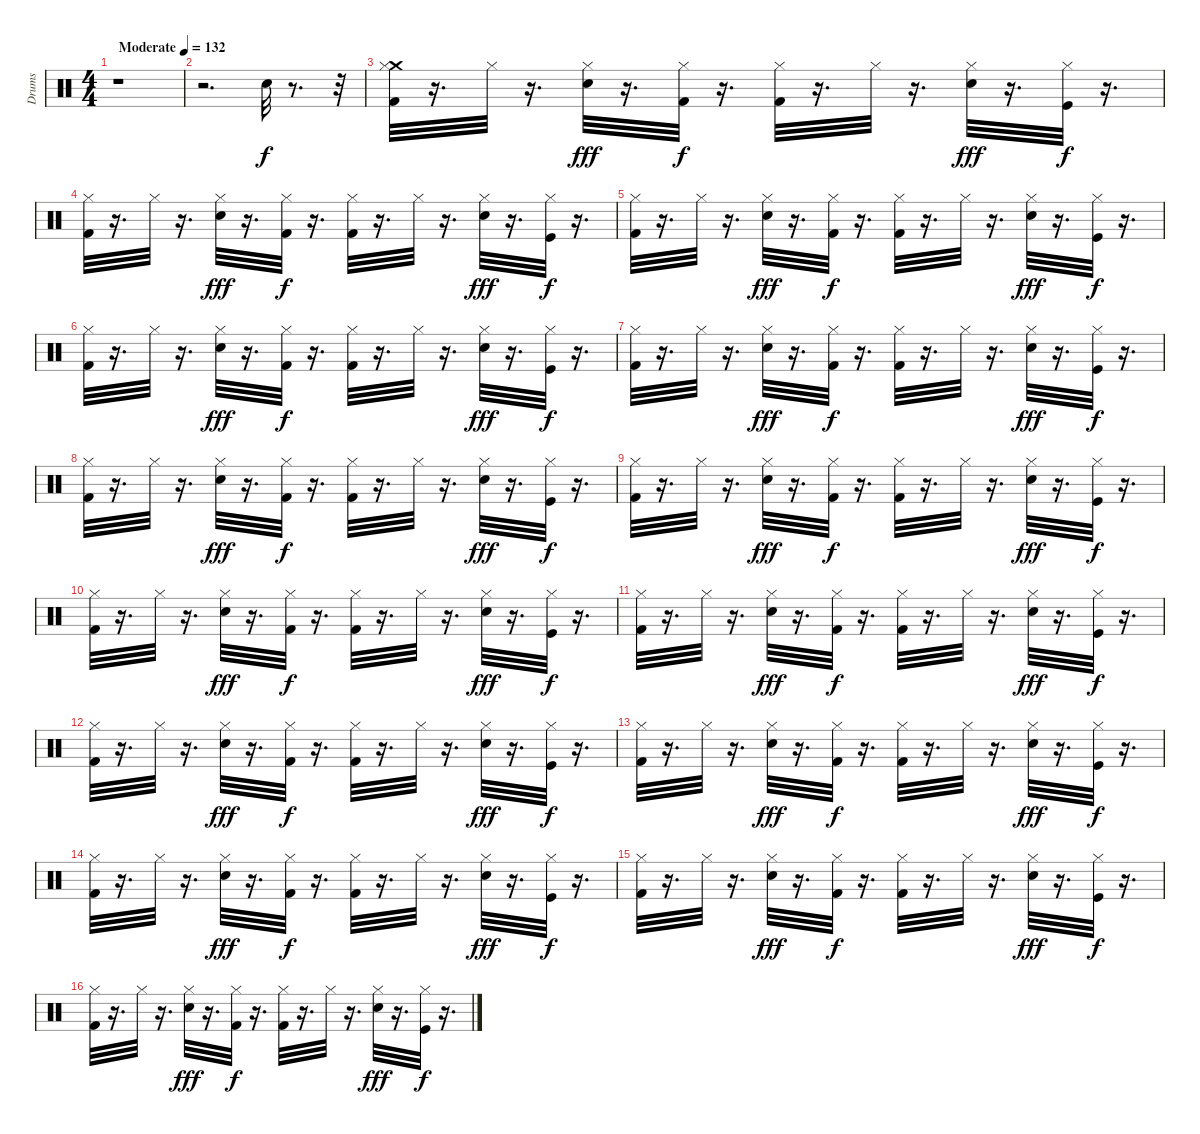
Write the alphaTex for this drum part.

\track ("Drums" "Drums") {instrument percussion}
\staff {score}
\articulation defaults
\ts (4 4)
\tempo (132 "Moderate")
\clef neutral
\ks c
r.1{dy f} |
r.2{d} "Snare (hit) 2".32 r.8{d} r.32 |
("Crash medium (hit)" "Hi-Hat (closed)" "Kick (hit) 2").32 r.16{d} "Hi-Hat (closed)".32 r.16{d} ("Hi-Hat (closed)" "Hand Clap (hit)").32{dy fff} r.16{d} ("Hi-Hat (closed)" "Kick (hit) 2").32{dy f} r.16{d} ("Hi-Hat (closed)" "Kick (hit) 2").32 r.16{d} "Hi-Hat (closed)".32 r.16{d} ("Hi-Hat (closed)" "Hand Clap (hit)").32{dy fff} r.16{d} ("Hi-Hat (closed)" "Kick (hit)").32{dy f} r.16{d} |
("Hi-Hat (closed)" "Kick (hit) 2").32 r.16{d} "Hi-Hat (closed)".32 r.16{d} ("Hi-Hat (closed)" "Hand Clap (hit)").32{dy fff} r.16{d} ("Hi-Hat (closed)" "Kick (hit) 2").32{dy f} r.16{d} ("Hi-Hat (closed)" "Kick (hit) 2").32 r.16{d} "Hi-Hat (closed)".32 r.16{d} ("Hi-Hat (closed)" "Hand Clap (hit)").32{dy fff} r.16{d} ("Hi-Hat (closed)" "Kick (hit)").32{dy f} r.16{d} |
("Hi-Hat (closed)" "Kick (hit) 2").32 r.16{d} "Hi-Hat (closed)".32 r.16{d} ("Hi-Hat (closed)" "Hand Clap (hit)").32{dy fff} r.16{d} ("Hi-Hat (closed)" "Kick (hit) 2").32{dy f} r.16{d} ("Hi-Hat (closed)" "Kick (hit) 2").32 r.16{d} "Hi-Hat (closed)".32 r.16{d} ("Hi-Hat (closed)" "Hand Clap (hit)").32{dy fff} r.16{d} ("Hi-Hat (closed)" "Kick (hit)").32{dy f} r.16{d} |
("Hi-Hat (closed)" "Kick (hit) 2").32 r.16{d} "Hi-Hat (closed)".32 r.16{d} ("Hi-Hat (closed)" "Hand Clap (hit)").32{dy fff} r.16{d} ("Hi-Hat (closed)" "Kick (hit) 2").32{dy f} r.16{d} ("Hi-Hat (closed)" "Kick (hit) 2").32 r.16{d} "Hi-Hat (closed)".32 r.16{d} ("Hi-Hat (closed)" "Hand Clap (hit)").32{dy fff} r.16{d} ("Hi-Hat (closed)" "Kick (hit)").32{dy f} r.16{d} |
("Hi-Hat (closed)" "Kick (hit) 2").32 r.16{d} "Hi-Hat (closed)".32 r.16{d} ("Hi-Hat (closed)" "Hand Clap (hit)").32{dy fff} r.16{d} ("Hi-Hat (closed)" "Kick (hit) 2").32{dy f} r.16{d} ("Hi-Hat (closed)" "Kick (hit) 2").32 r.16{d} "Hi-Hat (closed)".32 r.16{d} ("Hi-Hat (closed)" "Hand Clap (hit)").32{dy fff} r.16{d} ("Hi-Hat (closed)" "Kick (hit)").32{dy f} r.16{d} |
("Hi-Hat (closed)" "Kick (hit) 2").32 r.16{d} "Hi-Hat (closed)".32 r.16{d} ("Hi-Hat (closed)" "Hand Clap (hit)").32{dy fff} r.16{d} ("Hi-Hat (closed)" "Kick (hit) 2").32{dy f} r.16{d} ("Hi-Hat (closed)" "Kick (hit) 2").32 r.16{d} "Hi-Hat (closed)".32 r.16{d} ("Hi-Hat (closed)" "Hand Clap (hit)").32{dy fff} r.16{d} ("Hi-Hat (closed)" "Kick (hit)").32{dy f} r.16{d} |
("Hi-Hat (closed)" "Kick (hit) 2").32 r.16{d} "Hi-Hat (closed)".32 r.16{d} ("Hi-Hat (closed)" "Hand Clap (hit)").32{dy fff} r.16{d} ("Hi-Hat (closed)" "Kick (hit) 2").32{dy f} r.16{d} ("Hi-Hat (closed)" "Kick (hit) 2").32 r.16{d} "Hi-Hat (closed)".32 r.16{d} ("Hi-Hat (closed)" "Hand Clap (hit)").32{dy fff} r.16{d} ("Hi-Hat (closed)" "Kick (hit)").32{dy f} r.16{d} |
("Hi-Hat (closed)" "Kick (hit) 2").32 r.16{d} "Hi-Hat (closed)".32 r.16{d} ("Hi-Hat (closed)" "Hand Clap (hit)").32{dy fff} r.16{d} ("Hi-Hat (closed)" "Kick (hit) 2").32{dy f} r.16{d} ("Hi-Hat (closed)" "Kick (hit) 2").32 r.16{d} "Hi-Hat (closed)".32 r.16{d} ("Hi-Hat (closed)" "Hand Clap (hit)").32{dy fff} r.16{d} ("Hi-Hat (closed)" "Kick (hit)").32{dy f} r.16{d} |
("Hi-Hat (closed)" "Kick (hit) 2").32 r.16{d} "Hi-Hat (closed)".32 r.16{d} ("Hi-Hat (closed)" "Hand Clap (hit)").32{dy fff} r.16{d} ("Hi-Hat (closed)" "Kick (hit) 2").32{dy f} r.16{d} ("Hi-Hat (closed)" "Kick (hit) 2").32 r.16{d} "Hi-Hat (closed)".32 r.16{d} ("Hi-Hat (closed)" "Hand Clap (hit)").32{dy fff} r.16{d} ("Hi-Hat (closed)" "Kick (hit)").32{dy f} r.16{d} |
("Hi-Hat (closed)" "Kick (hit) 2").32 r.16{d} "Hi-Hat (closed)".32 r.16{d} ("Hi-Hat (closed)" "Hand Clap (hit)").32{dy fff} r.16{d} ("Hi-Hat (closed)" "Kick (hit) 2").32{dy f} r.16{d} ("Hi-Hat (closed)" "Kick (hit) 2").32 r.16{d} "Hi-Hat (closed)".32 r.16{d} ("Hi-Hat (closed)" "Hand Clap (hit)").32{dy fff} r.16{d} ("Hi-Hat (closed)" "Kick (hit)").32{dy f} r.16{d} |
("Hi-Hat (closed)" "Kick (hit) 2").32 r.16{d} "Hi-Hat (closed)".32 r.16{d} ("Hi-Hat (closed)" "Hand Clap (hit)").32{dy fff} r.16{d} ("Hi-Hat (closed)" "Kick (hit) 2").32{dy f} r.16{d} ("Hi-Hat (closed)" "Kick (hit) 2").32 r.16{d} "Hi-Hat (closed)".32 r.16{d} ("Hi-Hat (closed)" "Hand Clap (hit)").32{dy fff} r.16{d} ("Hi-Hat (closed)" "Kick (hit)").32{dy f} r.16{d} |
("Hi-Hat (closed)" "Kick (hit) 2").32 r.16{d} "Hi-Hat (closed)".32 r.16{d} ("Hi-Hat (closed)" "Hand Clap (hit)").32{dy fff} r.16{d} ("Hi-Hat (closed)" "Kick (hit) 2").32{dy f} r.16{d} ("Hi-Hat (closed)" "Kick (hit) 2").32 r.16{d} "Hi-Hat (closed)".32 r.16{d} ("Hi-Hat (closed)" "Hand Clap (hit)").32{dy fff} r.16{d} ("Hi-Hat (closed)" "Kick (hit)").32{dy f} r.16{d} |
("Hi-Hat (closed)" "Kick (hit) 2").32 r.16{d} "Hi-Hat (closed)".32 r.16{d} ("Hi-Hat (closed)" "Hand Clap (hit)").32{dy fff} r.16{d} ("Hi-Hat (closed)" "Kick (hit) 2").32{dy f} r.16{d} ("Hi-Hat (closed)" "Kick (hit) 2").32 r.16{d} "Hi-Hat (closed)".32 r.16{d} ("Hi-Hat (closed)" "Hand Clap (hit)").32{dy fff} r.16{d} ("Hi-Hat (closed)" "Kick (hit)").32{dy f} r.16{d} |
("Hi-Hat (closed)" "Kick (hit) 2").32 r.16{d} "Hi-Hat (closed)".32 r.16{d} ("Hi-Hat (closed)" "Hand Clap (hit)").32{dy fff} r.16{d} ("Hi-Hat (closed)" "Kick (hit) 2").32{dy f} r.16{d} ("Hi-Hat (closed)" "Kick (hit) 2").32 r.16{d} "Hi-Hat (closed)".32 r.16{d} ("Hi-Hat (closed)" "Hand Clap (hit)").32{dy fff} r.16{d} ("Hi-Hat (closed)" "Kick (hit)").32{dy f} r.16{d}
